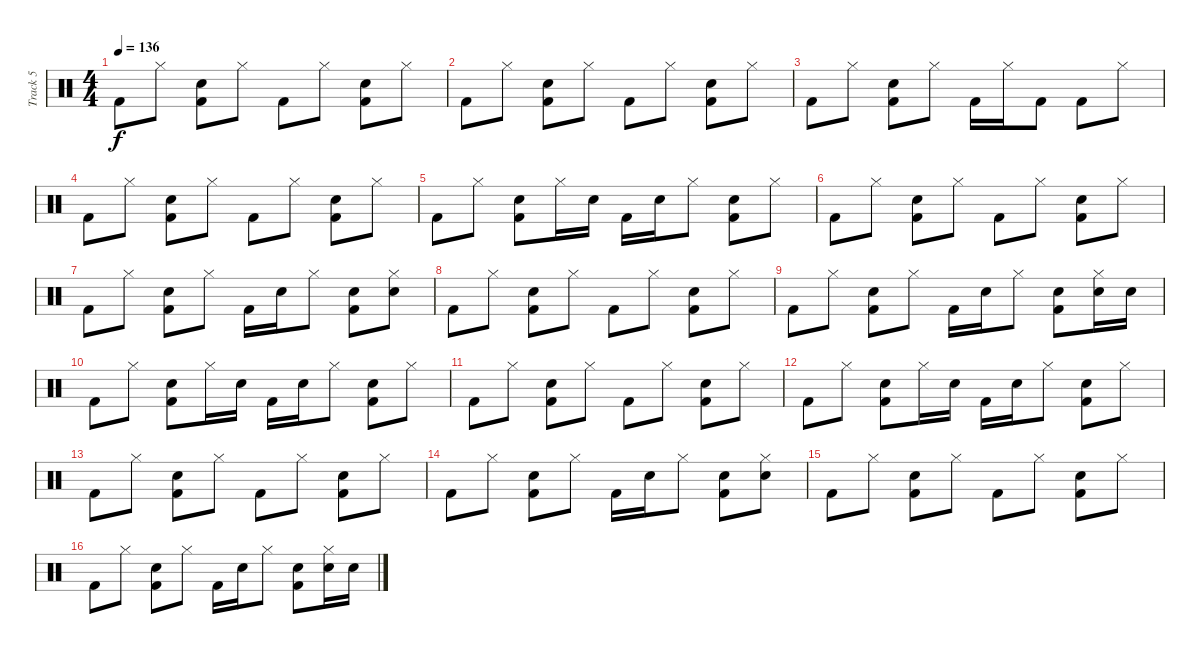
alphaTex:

\track ("Track 5" "Track 5") {instrument percussion}
\staff {score}
\articulation defaults
\ts (4 4)
\tempo 136
\clef neutral
\ks c "Kick (hit) 2".8{dy f} "Hi-Hat (closed)".8
("Kick (hit) 2" "Hand Clap (hit)").8 "Hi-Hat (closed)".8 "Kick (hit) 2".8 "Hi-Hat (closed)".8 ("Kick (hit) 2" "Hand Clap (hit)").8 "Hi-Hat (closed)".8 |
"Kick (hit) 2".8 "Hi-Hat (closed)".8 ("Kick (hit) 2" "Hand Clap (hit)").8 "Hi-Hat (closed)".8 "Kick (hit) 2".8 "Hi-Hat (closed)".8 ("Kick (hit) 2" "Hand Clap (hit)").8 "Hi-Hat (closed)".8 |
"Kick (hit) 2".8 "Hi-Hat (closed)".8 ("Kick (hit) 2" "Hand Clap (hit)").8 "Hi-Hat (closed)".8 "Kick (hit) 2".16 "Hi-Hat (closed)".16 "Kick (hit) 2".8 "Kick (hit) 2".8 "Hi-Hat (closed)".8 |
"Kick (hit) 2".8 "Hi-Hat (closed)".8 ("Kick (hit) 2" "Hand Clap (hit)").8 "Hi-Hat (closed)".8 "Kick (hit) 2".8 "Hi-Hat (closed)".8 ("Kick (hit) 2" "Hand Clap (hit)").8 "Hi-Hat (closed)".8 |
"Kick (hit) 2".8 "Hi-Hat (closed)".8 ("Kick (hit) 2" "Hand Clap (hit)").8 "Hi-Hat (closed)".16 "Hand Clap (hit)".16 "Kick (hit) 2".16 "Hand Clap (hit)".16 "Hi-Hat (closed)".8 ("Kick (hit) 2" "Hand Clap (hit)").8 "Hi-Hat (closed)".8 |
"Kick (hit) 2".8 "Hi-Hat (closed)".8 ("Kick (hit) 2" "Hand Clap (hit)").8 "Hi-Hat (closed)".8 "Kick (hit) 2".8 "Hi-Hat (closed)".8 ("Kick (hit) 2" "Hand Clap (hit)").8 "Hi-Hat (closed)".8 |
"Kick (hit) 2".8 "Hi-Hat (closed)".8 ("Kick (hit) 2" "Hand Clap (hit)").8 "Hi-Hat (closed)".8 "Kick (hit) 2".16 "Hand Clap (hit)".16 "Hi-Hat (closed)".8 ("Kick (hit) 2" "Hand Clap (hit)").8 ("Hand Clap (hit)" "Hi-Hat (closed)").8 |
"Kick (hit) 2".8 "Hi-Hat (closed)".8 ("Kick (hit) 2" "Hand Clap (hit)").8 "Hi-Hat (closed)".8 "Kick (hit) 2".8 "Hi-Hat (closed)".8 ("Kick (hit) 2" "Hand Clap (hit)").8 "Hi-Hat (closed)".8 |
"Kick (hit) 2".8 "Hi-Hat (closed)".8 ("Kick (hit) 2" "Hand Clap (hit)").8 "Hi-Hat (closed)".8 "Kick (hit) 2".16 "Hand Clap (hit)".16 "Hi-Hat (closed)".8 ("Kick (hit) 2" "Hand Clap (hit)").8 ("Hand Clap (hit)" "Hi-Hat (closed)").16 "Hand Clap (hit)".16 |
"Kick (hit) 2".8 "Hi-Hat (closed)".8 ("Kick (hit) 2" "Hand Clap (hit)").8 "Hi-Hat (closed)".16 "Hand Clap (hit)".16 "Kick (hit) 2".16 "Hand Clap (hit)".16 "Hi-Hat (closed)".8 ("Kick (hit) 2" "Hand Clap (hit)").8 "Hi-Hat (closed)".8 |
"Kick (hit) 2".8 "Hi-Hat (closed)".8 ("Kick (hit) 2" "Hand Clap (hit)").8 "Hi-Hat (closed)".8 "Kick (hit) 2".8 "Hi-Hat (closed)".8 ("Kick (hit) 2" "Hand Clap (hit)").8 "Hi-Hat (closed)".8 |
"Kick (hit) 2".8 "Hi-Hat (closed)".8 ("Kick (hit) 2" "Hand Clap (hit)").8 "Hi-Hat (closed)".16 "Hand Clap (hit)".16 "Kick (hit) 2".16 "Hand Clap (hit)".16 "Hi-Hat (closed)".8 ("Kick (hit) 2" "Hand Clap (hit)").8 "Hi-Hat (closed)".8 |
"Kick (hit) 2".8 "Hi-Hat (closed)".8 ("Kick (hit) 2" "Hand Clap (hit)").8 "Hi-Hat (closed)".8 "Kick (hit) 2".8 "Hi-Hat (closed)".8 ("Kick (hit) 2" "Hand Clap (hit)").8 "Hi-Hat (closed)".8 |
"Kick (hit) 2".8 "Hi-Hat (closed)".8 ("Kick (hit) 2" "Hand Clap (hit)").8 "Hi-Hat (closed)".8 "Kick (hit) 2".16 "Hand Clap (hit)".16 "Hi-Hat (closed)".8 ("Kick (hit) 2" "Hand Clap (hit)").8 ("Hand Clap (hit)" "Hi-Hat (closed)").8 |
"Kick (hit) 2".8 "Hi-Hat (closed)".8 ("Kick (hit) 2" "Hand Clap (hit)").8 "Hi-Hat (closed)".8 "Kick (hit) 2".8 "Hi-Hat (closed)".8 ("Kick (hit) 2" "Hand Clap (hit)").8 "Hi-Hat (closed)".8 |
"Kick (hit) 2".8 "Hi-Hat (closed)".8 ("Kick (hit) 2" "Hand Clap (hit)").8 "Hi-Hat (closed)".8 "Kick (hit) 2".16 "Hand Clap (hit)".16 "Hi-Hat (closed)".8 ("Kick (hit) 2" "Hand Clap (hit)").8 ("Hand Clap (hit)" "Hi-Hat (closed)").16 "Hand Clap (hit)".16
